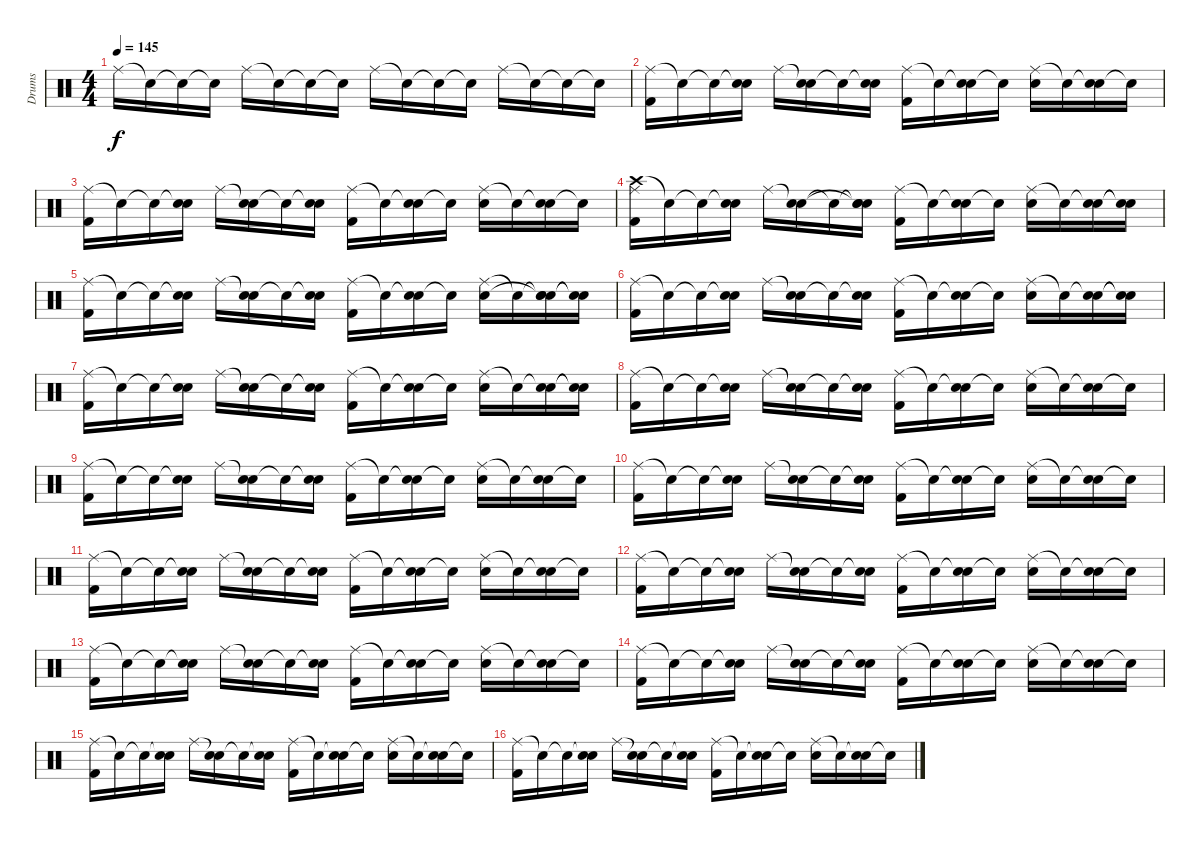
\track ("Drums" "Drums") {instrument percussion}
\staff {score}
\articulation defaults
\ts (4 4)
\tempo 145
\clef neutral
\ks c "Ride (middle)".16{dy f} "Snare (hit)"{t}.16 "Snare (hit)"{t}.16 "Snare (hit)"{t}.16 "Ride (middle)".16 "Snare (hit)"{t}.16 "Snare (hit)"{t}.16 "Snare (hit)"{t}.16 "Ride (middle)".16 "Snare (hit)"{t}.16 "Snare (hit)"{t}.16 "Snare (hit)"{t}.16 "Ride (middle)".16 "Snare (hit)"{t}.16 "Snare (hit)"{t}.16 "Snare (hit)"{t}.16
|
("Ride (middle)" "Kick (hit) 2").16 "Snare (hit)"{t}.16 "Snare (hit)"{t}.16 ("Snare (hit)"{t} "Electric Snare (hit)").16 "Ride (middle)".16 ("Snare (hit)"{t} "Electric Snare (hit)").16 "Snare (hit)"{t}.16 ("Snare (hit)"{t} "Electric Snare (hit)").16 ("Ride (middle)" "Kick (hit) 2").16 "Snare (hit)"{t}.16 ("Snare (hit)"{t} "Electric Snare (hit)").16 "Snare (hit)"{t}.16 ("Ride (middle)" "Electric Snare (hit)").16 "Snare (hit)"{t}.16 ("Snare (hit)"{t} "Electric Snare (hit)").16 "Snare (hit)"{t}.16 |
("Ride (middle)" "Kick (hit) 2").16 "Snare (hit)"{t}.16 "Snare (hit)"{t}.16 ("Snare (hit)"{t} "Electric Snare (hit)").16 "Ride (middle)".16 ("Snare (hit)"{t} "Electric Snare (hit)").16 "Snare (hit)"{t}.16 ("Snare (hit)"{t} "Electric Snare (hit)").16 ("Ride (middle)" "Kick (hit) 2").16 "Snare (hit)"{t}.16 ("Snare (hit)"{t} "Electric Snare (hit)").16 "Snare (hit)"{t}.16 ("Ride (middle)" "Electric Snare (hit)").16 "Snare (hit)"{t}.16 ("Snare (hit)"{t} "Electric Snare (hit)").16 "Snare (hit)"{t}.16 |
("Crash high (hit)" "Ride (middle)" "Kick (hit) 2").16 "Snare (hit)"{t}.16 "Snare (hit)"{t}.16 ("Snare (hit)"{t} "Electric Snare (hit)").16 "Ride (middle)".16 ("Snare (hit)"{t} "Electric Snare (hit)").16 "Snare (hit)"{t}.16 ("Snare (hit)"{t} "Snare (hit)"{t} "Electric Snare (hit)").16 ("Ride (middle)" "Kick (hit) 2").16 "Snare (hit)"{t}.16 ("Snare (hit)"{t} "Electric Snare (hit)").16 "Snare (hit)"{t}.16 ("Ride (middle)" "Electric Snare (hit)").16 "Snare (hit)"{t}.16 ("Snare (hit)"{t} "Electric Snare (hit)").16 ("Snare (hit)"{t} "Snare (hit)"{t}).16 |
("Ride (middle)" "Kick (hit) 2").16 "Snare (hit)"{t}.16 "Snare (hit)"{t}.16 ("Snare (hit)"{t} "Electric Snare (hit)").16 "Ride (middle)".16 ("Snare (hit)"{t} "Electric Snare (hit)").16 "Snare (hit)"{t}.16 ("Snare (hit)"{t} "Electric Snare (hit)").16 ("Ride (middle)" "Kick (hit) 2").16 "Snare (hit)"{t}.16 ("Snare (hit)"{t} "Electric Snare (hit)").16 "Snare (hit)"{t}.16 ("Ride (middle)" "Electric Snare (hit)").16 "Snare (hit)"{t}.16 ("Snare (hit)"{t} "Snare (hit)"{t} "Electric Snare (hit)").16 ("Snare (hit)"{t} "Snare (hit)"{t}).16 |
("Ride (middle)" "Kick (hit) 2").16 "Snare (hit)"{t}.16 "Snare (hit)"{t}.16 ("Snare (hit)"{t} "Electric Snare (hit)").16 "Ride (middle)".16 ("Snare (hit)"{t} "Electric Snare (hit)").16 "Snare (hit)"{t}.16 ("Snare (hit)"{t} "Electric Snare (hit)").16 ("Ride (middle)" "Kick (hit) 2").16 "Snare (hit)"{t}.16 ("Snare (hit)"{t} "Electric Snare (hit)").16 "Snare (hit)"{t}.16 ("Ride (middle)" "Electric Snare (hit)").16 "Snare (hit)"{t}.16 ("Snare (hit)"{t} "Electric Snare (hit)").16 ("Snare (hit)"{t} "Snare (hit)"{t}).16 |
("Ride (middle)" "Kick (hit) 2").16 "Snare (hit)"{t}.16 "Snare (hit)"{t}.16 ("Snare (hit)"{t} "Electric Snare (hit)").16 "Ride (middle)".16 ("Snare (hit)"{t} "Electric Snare (hit)").16 "Snare (hit)"{t}.16 ("Snare (hit)"{t} "Electric Snare (hit)").16 ("Ride (middle)" "Kick (hit) 2").16 "Snare (hit)"{t}.16 ("Snare (hit)"{t} "Electric Snare (hit)").16 "Snare (hit)"{t}.16 ("Ride (middle)" "Electric Snare (hit)").16 "Snare (hit)"{t}.16 ("Snare (hit)"{t} "Electric Snare (hit)").16 ("Snare (hit)"{t} "Snare (hit)"{t}).16 |
("Ride (middle)" "Kick (hit) 2").16 "Snare (hit)"{t}.16 "Snare (hit)"{t}.16 ("Snare (hit)"{t} "Electric Snare (hit)").16 "Ride (middle)".16 ("Snare (hit)"{t} "Electric Snare (hit)").16 "Snare (hit)"{t}.16 ("Snare (hit)"{t} "Electric Snare (hit)").16 ("Ride (middle)" "Kick (hit) 2").16 "Snare (hit)"{t}.16 ("Snare (hit)"{t} "Electric Snare (hit)").16 "Snare (hit)"{t}.16 ("Ride (middle)" "Electric Snare (hit)").16 "Snare (hit)"{t}.16 ("Snare (hit)"{t} "Electric Snare (hit)").16 "Snare (hit)"{t}.16 |
("Ride (middle)" "Kick (hit) 2").16 "Snare (hit)"{t}.16 "Snare (hit)"{t}.16 ("Snare (hit)"{t} "Electric Snare (hit)").16 "Ride (middle)".16 ("Snare (hit)"{t} "Electric Snare (hit)").16 "Snare (hit)"{t}.16 ("Snare (hit)"{t} "Electric Snare (hit)").16 ("Ride (middle)" "Kick (hit) 2").16 "Snare (hit)"{t}.16 ("Snare (hit)"{t} "Electric Snare (hit)").16 "Snare (hit)"{t}.16 ("Ride (middle)" "Electric Snare (hit)").16 "Snare (hit)"{t}.16 ("Snare (hit)"{t} "Electric Snare (hit)").16 "Snare (hit)"{t}.16 |
("Ride (middle)" "Kick (hit) 2").16 "Snare (hit)"{t}.16 "Snare (hit)"{t}.16 ("Snare (hit)"{t} "Electric Snare (hit)").16 "Ride (middle)".16 ("Snare (hit)"{t} "Electric Snare (hit)").16 "Snare (hit)"{t}.16 ("Snare (hit)"{t} "Electric Snare (hit)").16 ("Ride (middle)" "Kick (hit) 2").16 "Snare (hit)"{t}.16 ("Snare (hit)"{t} "Electric Snare (hit)").16 "Snare (hit)"{t}.16 ("Ride (middle)" "Electric Snare (hit)").16 "Snare (hit)"{t}.16 ("Snare (hit)"{t} "Electric Snare (hit)").16 "Snare (hit)"{t}.16 |
("Ride (middle)" "Kick (hit) 2").16 "Snare (hit)"{t}.16 "Snare (hit)"{t}.16 ("Snare (hit)"{t} "Electric Snare (hit)").16 "Ride (middle)".16 ("Snare (hit)"{t} "Electric Snare (hit)").16 "Snare (hit)"{t}.16 ("Snare (hit)"{t} "Electric Snare (hit)").16 ("Ride (middle)" "Kick (hit) 2").16 "Snare (hit)"{t}.16 ("Snare (hit)"{t} "Electric Snare (hit)").16 "Snare (hit)"{t}.16 ("Ride (middle)" "Electric Snare (hit)").16 "Snare (hit)"{t}.16 ("Snare (hit)"{t} "Electric Snare (hit)").16 "Snare (hit)"{t}.16 |
("Ride (middle)" "Kick (hit) 2").16 "Snare (hit)"{t}.16 "Snare (hit)"{t}.16 ("Snare (hit)"{t} "Electric Snare (hit)").16 "Ride (middle)".16 ("Snare (hit)"{t} "Electric Snare (hit)").16 "Snare (hit)"{t}.16 ("Snare (hit)"{t} "Electric Snare (hit)").16 ("Ride (middle)" "Kick (hit) 2").16 "Snare (hit)"{t}.16 ("Snare (hit)"{t} "Electric Snare (hit)").16 "Snare (hit)"{t}.16 ("Ride (middle)" "Electric Snare (hit)").16 "Snare (hit)"{t}.16 ("Snare (hit)"{t} "Electric Snare (hit)").16 "Snare (hit)"{t}.16 |
("Ride (middle)" "Kick (hit) 2").16 "Snare (hit)"{t}.16 "Snare (hit)"{t}.16 ("Snare (hit)"{t} "Electric Snare (hit)").16 "Ride (middle)".16 ("Snare (hit)"{t} "Electric Snare (hit)").16 "Snare (hit)"{t}.16 ("Snare (hit)"{t} "Electric Snare (hit)").16 ("Ride (middle)" "Kick (hit) 2").16 "Snare (hit)"{t}.16 ("Snare (hit)"{t} "Electric Snare (hit)").16 "Snare (hit)"{t}.16 ("Ride (middle)" "Electric Snare (hit)").16 "Snare (hit)"{t}.16 ("Snare (hit)"{t} "Electric Snare (hit)").16 "Snare (hit)"{t}.16 |
("Ride (middle)" "Kick (hit) 2").16 "Snare (hit)"{t}.16 "Snare (hit)"{t}.16 ("Snare (hit)"{t} "Electric Snare (hit)").16 "Ride (middle)".16 ("Snare (hit)"{t} "Electric Snare (hit)").16 "Snare (hit)"{t}.16 ("Snare (hit)"{t} "Electric Snare (hit)").16 ("Ride (middle)" "Kick (hit) 2").16 "Snare (hit)"{t}.16 ("Snare (hit)"{t} "Electric Snare (hit)").16 "Snare (hit)"{t}.16 ("Ride (middle)" "Electric Snare (hit)").16 "Snare (hit)"{t}.16 ("Snare (hit)"{t} "Electric Snare (hit)").16 "Snare (hit)"{t}.16 |
("Ride (middle)" "Kick (hit) 2").16 "Snare (hit)"{t}.16 "Snare (hit)"{t}.16 ("Snare (hit)"{t} "Electric Snare (hit)").16 "Ride (middle)".16 ("Snare (hit)"{t} "Electric Snare (hit)").16 "Snare (hit)"{t}.16 ("Snare (hit)"{t} "Electric Snare (hit)").16 ("Ride (middle)" "Kick (hit) 2").16 "Snare (hit)"{t}.16 ("Snare (hit)"{t} "Electric Snare (hit)").16 "Snare (hit)"{t}.16 ("Ride (middle)" "Electric Snare (hit)").16 "Snare (hit)"{t}.16 ("Snare (hit)"{t} "Electric Snare (hit)").16 "Snare (hit)"{t}.16 |
("Ride (middle)" "Kick (hit) 2").16 "Snare (hit)"{t}.16 "Snare (hit)"{t}.16 ("Snare (hit)"{t} "Electric Snare (hit)").16 "Ride (middle)".16 ("Snare (hit)"{t} "Electric Snare (hit)").16 "Snare (hit)"{t}.16 ("Snare (hit)"{t} "Electric Snare (hit)").16 ("Ride (middle)" "Kick (hit) 2").16 "Snare (hit)"{t}.16 ("Snare (hit)"{t} "Electric Snare (hit)").16 "Snare (hit)"{t}.16 ("Ride (middle)" "Electric Snare (hit)").16 "Snare (hit)"{t}.16 ("Snare (hit)"{t} "Electric Snare (hit)").16 "Snare (hit)"{t}.16
